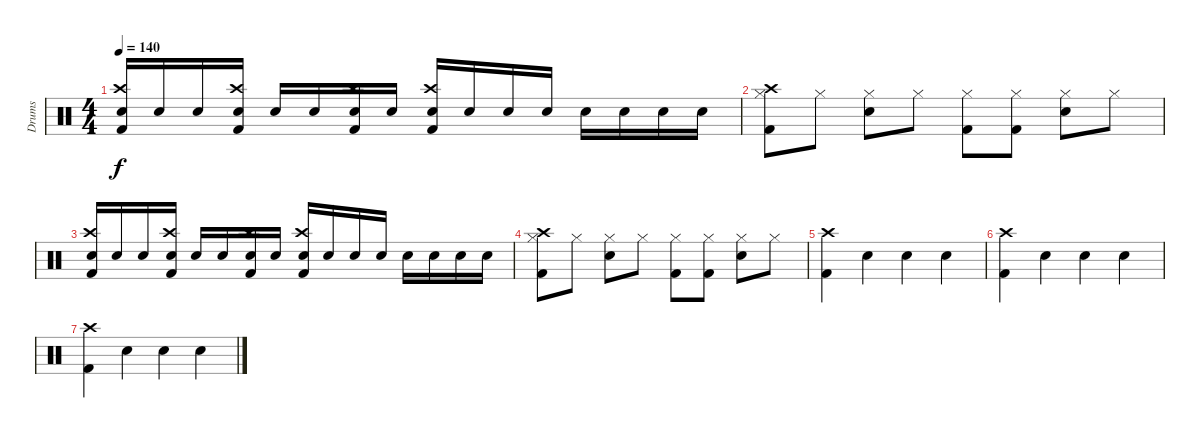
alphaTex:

\track ("Drums" "Drums") {instrument percussion}
\staff {score}
\articulation defaults
\ts (4 4)
\tempo 140
\clef neutral
\ks c
("Electric Snare (hit)" "Crash high (hit)" "Kick (hit) 2").16{dy f} "Snare (hit)"{x}.16 "Electric Snare (hit)"{x}.16 ("Electric Snare (hit)" "Crash high (hit)" "Kick (hit) 2").16 "Snare (hit)"{x}.16 "Electric Snare (hit)"{x}.16 ("Electric Snare (hit)" "Crash high (hit)" "Kick (hit) 2").16 "Snare (hit)"{x}.16 ("Electric Snare (hit)" "Crash high (hit)" "Kick (hit) 2").16 "Electric Snare (hit)"{x}.16 "Electric Snare (hit)".16 "Electric Snare (hit)".16 "Electric Snare (hit)".16 "Electric Snare (hit)".16 "Electric Snare (hit)".16 "Electric Snare (hit)".16 |
("Hi-Hat (closed)" "Kick (hit) 2" "Crash high (hit)").8 "Hi-Hat (closed)".8 ("Hi-Hat (closed)" "Electric Snare (hit)").8 "Hi-Hat (closed)".8 ("Hi-Hat (closed)" "Kick (hit) 2").8 ("Hi-Hat (closed)" "Kick (hit) 2").8 ("Hi-Hat (closed)" "Electric Snare (hit)").8 "Hi-Hat (closed)".8 |
("Electric Snare (hit)" "Crash high (hit)" "Kick (hit) 2").16 "Snare (hit)"{x}.16 "Electric Snare (hit)"{x}.16 ("Electric Snare (hit)" "Crash high (hit)" "Kick (hit) 2").16 "Snare (hit)"{x}.16 "Electric Snare (hit)"{x}.16 ("Electric Snare (hit)" "Crash high (hit)" "Kick (hit) 2").16 "Snare (hit)"{x}.16 ("Electric Snare (hit)" "Crash high (hit)" "Kick (hit) 2").16 "Electric Snare (hit)"{x}.16 "Electric Snare (hit)".16 "Electric Snare (hit)".16 "Electric Snare (hit)".16 "Electric Snare (hit)".16 "Electric Snare (hit)".16 "Electric Snare (hit)".16 |
("Hi-Hat (closed)" "Kick (hit) 2" "Crash high (hit)").8 "Hi-Hat (closed)".8 ("Hi-Hat (closed)" "Electric Snare (hit)").8 "Hi-Hat (closed)".8 ("Hi-Hat (closed)" "Kick (hit) 2").8 ("Hi-Hat (closed)" "Kick (hit) 2").8 ("Hi-Hat (closed)" "Electric Snare (hit)").8 "Hi-Hat (closed)".8 |
("Crash high (hit)" "Kick (hit) 2").4 "Snare (hit)"{x}.4 "Snare (hit)"{x}.4 "Snare (hit)"{x}.4 |
("Crash high (hit)" "Kick (hit) 2").4 "Snare (hit)"{x}.4 "Snare (hit)"{x}.4 "Snare (hit)"{x}.4 |
("Crash high (hit)" "Kick (hit) 2").4 "Snare (hit)"{x}.4 "Snare (hit)"{x}.4 "Snare (hit)"{x}.4
